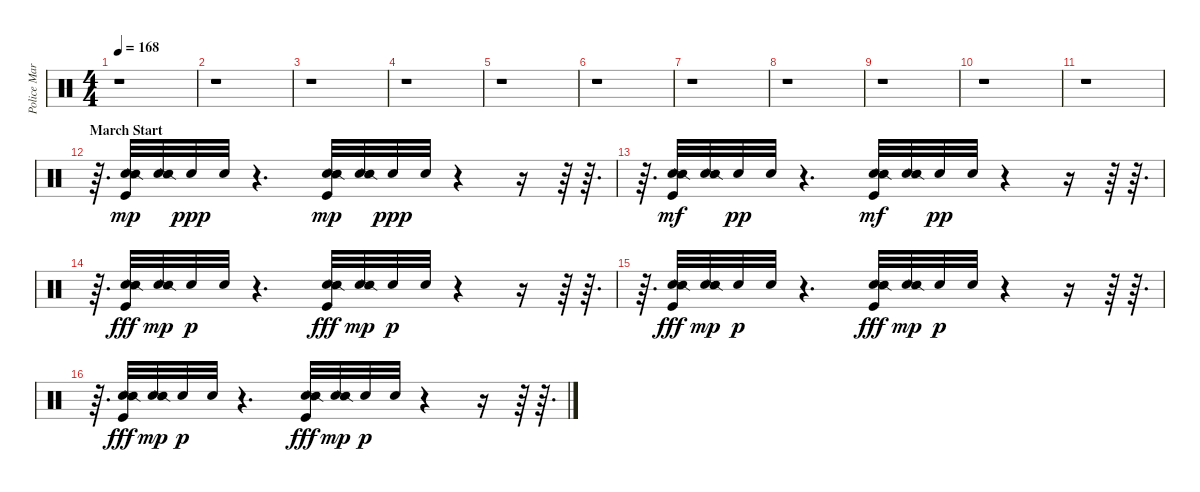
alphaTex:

\track ("Police March 2" "Police Mar") {instrument percussion}
\staff {score}
\articulation defaults
\ts (4 4)
\tempo 168
\clef neutral
\ks c
r.1{dy mp} |
r.1 |
r.1 |
r.1 |
r.1 |
r.1 |
r.1 |
r.1 |
r.1 |
r.1 |
r.1 |
\section ("" "March Start")
r.64{d} ("Hand Clap (hit)" "Snare (side stick) 2" "Kick (hit)").32 ("Hand Clap (hit)" "Snare (side stick) 2").32 "Hand Clap (hit)".32{dy ppp} "Hand Clap (hit)".32 r.4{d} ("Hand Clap (hit)" "Snare (side stick) 2" "Kick (hit)").32{dy mp} ("Hand Clap (hit)" "Snare (side stick) 2").32 "Hand Clap (hit)".32{dy ppp} "Hand Clap (hit)".32 r.4 r.16 r.64 r.64{d} |
r.64{d} ("Hand Clap (hit)" "Snare (side stick) 2" "Kick (hit)").32{dy mf} ("Hand Clap (hit)" "Snare (side stick) 2").32 "Hand Clap (hit)".32{dy pp} "Hand Clap (hit)".32 r.4{d} ("Hand Clap (hit)" "Snare (side stick) 2" "Kick (hit)").32{dy mf} ("Hand Clap (hit)" "Snare (side stick) 2").32 "Hand Clap (hit)".32{dy pp} "Hand Clap (hit)".32 r.4 r.16 r.64 r.64{d} |
r.64{d} ("Hand Clap (hit)" "Snare (side stick) 2" "Kick (hit)").32{dy fff} ("Hand Clap (hit)" "Snare (side stick) 2").32{dy mp} "Hand Clap (hit)".32{dy p} "Hand Clap (hit)".32 r.4{d} ("Hand Clap (hit)" "Snare (side stick) 2" "Kick (hit)").32{dy fff} ("Hand Clap (hit)" "Snare (side stick) 2").32{dy mp} "Hand Clap (hit)".32{dy p} "Hand Clap (hit)".32 r.4 r.16 r.64 r.64{d} |
r.64{d} ("Hand Clap (hit)" "Snare (side stick) 2" "Kick (hit)").32{dy fff} ("Hand Clap (hit)" "Snare (side stick) 2").32{dy mp} "Hand Clap (hit)".32{dy p} "Hand Clap (hit)".32 r.4{d} ("Hand Clap (hit)" "Snare (side stick) 2" "Kick (hit)").32{dy fff} ("Hand Clap (hit)" "Snare (side stick) 2").32{dy mp} "Hand Clap (hit)".32{dy p} "Hand Clap (hit)".32 r.4 r.16 r.64 r.64{d} |
r.64{d} ("Hand Clap (hit)" "Snare (side stick) 2" "Kick (hit)").32{dy fff} ("Hand Clap (hit)" "Snare (side stick) 2").32{dy mp} "Hand Clap (hit)".32{dy p} "Hand Clap (hit)".32 r.4{d} ("Hand Clap (hit)" "Snare (side stick) 2" "Kick (hit)").32{dy fff} ("Hand Clap (hit)" "Snare (side stick) 2").32{dy mp} "Hand Clap (hit)".32{dy p} "Hand Clap (hit)".32 r.4 r.16 r.64 r.64{d}
